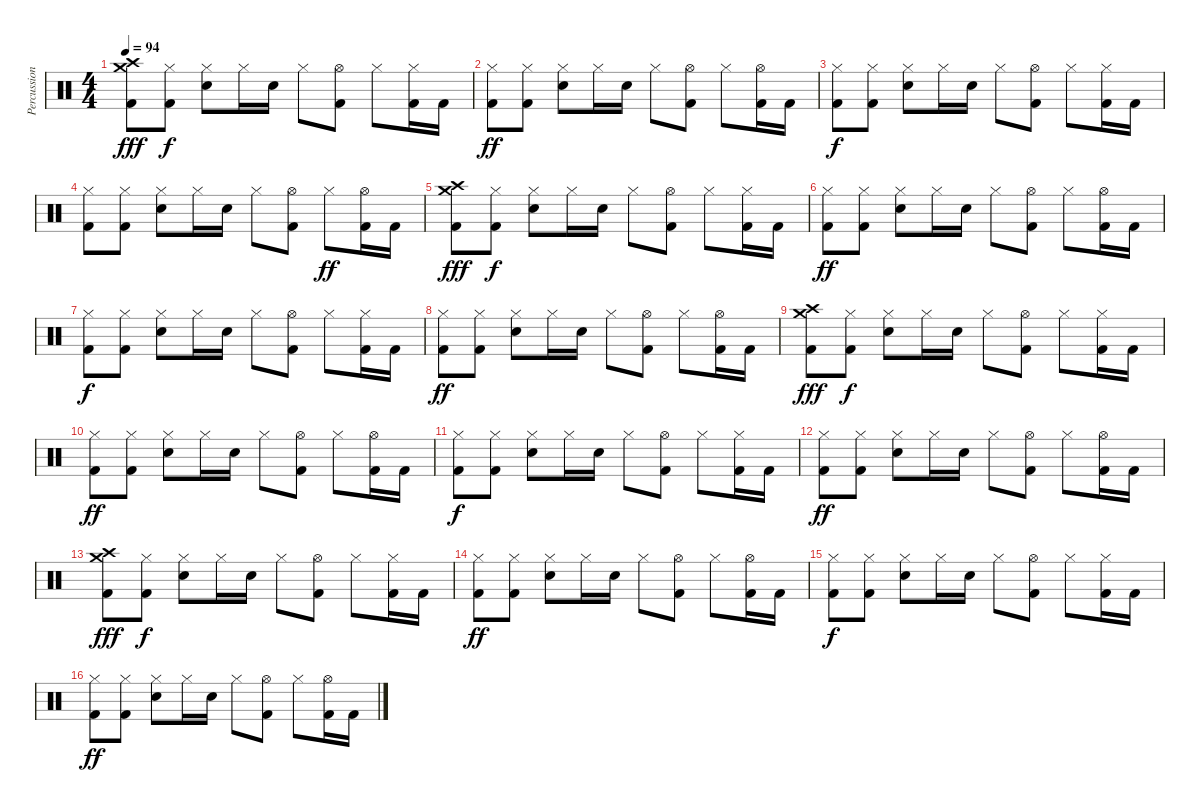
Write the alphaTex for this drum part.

\track ("Percussion" "Percussion") {instrument percussion}
\staff {score}
\articulation defaults
\ts (4 4)
\tempo 94
\clef neutral
\ks c
("Crash high (hit)" "Crash medium (hit)" "Kick (hit) 2").8{dy fff} ("Hi-Hat (closed)" "Kick (hit) 2").8{dy f} ("Hi-Hat (closed)" "Snare (hit) 2").8 "Hi-Hat (closed)".16 "Snare (hit) 2".16 "Hi-Hat (closed)".8 ("Hi-Hat (open)" "Kick (hit) 2").8 "Hi-Hat (closed)".8 ("Hi-Hat (closed)" "Kick (hit) 2").16 "Kick (hit) 2".16 |
("Hi-Hat (closed)" "Kick (hit) 2").8{dy ff} ("Hi-Hat (closed)" "Kick (hit) 2").8 ("Hi-Hat (closed)" "Snare (hit) 2").8 "Hi-Hat (closed)".16 "Snare (hit) 2".16 "Hi-Hat (closed)".8 ("Hi-Hat (open)" "Kick (hit) 2").8 "Hi-Hat (closed)".8 ("Hi-Hat (open)" "Kick (hit) 2").16 "Kick (hit) 2".16 |
("Hi-Hat (closed)" "Kick (hit) 2").8{dy f} ("Hi-Hat (closed)" "Kick (hit) 2").8 ("Hi-Hat (closed)" "Snare (hit) 2").8 "Hi-Hat (closed)".16 "Snare (hit) 2".16 "Hi-Hat (closed)".8 ("Hi-Hat (open)" "Kick (hit) 2").8 "Hi-Hat (closed)".8 ("Hi-Hat (closed)" "Kick (hit) 2").16 "Kick (hit) 2".16 |
("Hi-Hat (closed)" "Kick (hit) 2").8 ("Hi-Hat (closed)" "Kick (hit) 2").8 ("Hi-Hat (closed)" "Snare (hit) 2").8 "Hi-Hat (closed)".16 "Snare (hit) 2".16 "Hi-Hat (closed)".8 ("Hi-Hat (open)" "Kick (hit) 2").8 "Hi-Hat (closed)".8{dy ff} ("Hi-Hat (open)" "Kick (hit) 2").16 "Kick (hit) 2".16 |
("Crash high (hit)" "Crash medium (hit)" "Kick (hit) 2").8{dy fff} ("Hi-Hat (closed)" "Kick (hit) 2").8{dy f} ("Hi-Hat (closed)" "Snare (hit) 2").8 "Hi-Hat (closed)".16 "Snare (hit) 2".16 "Hi-Hat (closed)".8 ("Hi-Hat (open)" "Kick (hit) 2").8 "Hi-Hat (closed)".8 ("Hi-Hat (closed)" "Kick (hit) 2").16 "Kick (hit) 2".16 |
("Hi-Hat (closed)" "Kick (hit) 2").8{dy ff} ("Hi-Hat (closed)" "Kick (hit) 2").8 ("Hi-Hat (closed)" "Snare (hit) 2").8 "Hi-Hat (closed)".16 "Snare (hit) 2".16 "Hi-Hat (closed)".8 ("Hi-Hat (open)" "Kick (hit) 2").8 "Hi-Hat (closed)".8 ("Hi-Hat (open)" "Kick (hit) 2").16 "Kick (hit) 2".16 |
("Hi-Hat (closed)" "Kick (hit) 2").8{dy f} ("Hi-Hat (closed)" "Kick (hit) 2").8 ("Hi-Hat (closed)" "Snare (hit) 2").8 "Hi-Hat (closed)".16 "Snare (hit) 2".16 "Hi-Hat (closed)".8 ("Hi-Hat (open)" "Kick (hit) 2").8 "Hi-Hat (closed)".8 ("Hi-Hat (closed)" "Kick (hit) 2").16 "Kick (hit) 2".16 |
("Hi-Hat (closed)" "Kick (hit) 2").8{dy ff} ("Hi-Hat (closed)" "Kick (hit) 2").8 ("Hi-Hat (closed)" "Snare (hit) 2").8 "Hi-Hat (closed)".16 "Snare (hit) 2".16 "Hi-Hat (closed)".8 ("Hi-Hat (open)" "Kick (hit) 2").8 "Hi-Hat (closed)".8 ("Hi-Hat (open)" "Kick (hit) 2").16 "Kick (hit) 2".16 |
("Crash high (hit)" "Crash medium (hit)" "Kick (hit) 2").8{dy fff} ("Hi-Hat (closed)" "Kick (hit) 2").8{dy f} ("Hi-Hat (closed)" "Snare (hit) 2").8 "Hi-Hat (closed)".16 "Snare (hit) 2".16 "Hi-Hat (closed)".8 ("Hi-Hat (open)" "Kick (hit) 2").8 "Hi-Hat (closed)".8 ("Hi-Hat (closed)" "Kick (hit) 2").16 "Kick (hit) 2".16 |
("Hi-Hat (closed)" "Kick (hit) 2").8{dy ff} ("Hi-Hat (closed)" "Kick (hit) 2").8 ("Hi-Hat (closed)" "Snare (hit) 2").8 "Hi-Hat (closed)".16 "Snare (hit) 2".16 "Hi-Hat (closed)".8 ("Hi-Hat (open)" "Kick (hit) 2").8 "Hi-Hat (closed)".8 ("Hi-Hat (open)" "Kick (hit) 2").16 "Kick (hit) 2".16 |
("Hi-Hat (closed)" "Kick (hit) 2").8{dy f} ("Hi-Hat (closed)" "Kick (hit) 2").8 ("Hi-Hat (closed)" "Snare (hit) 2").8 "Hi-Hat (closed)".16 "Snare (hit) 2".16 "Hi-Hat (closed)".8 ("Hi-Hat (open)" "Kick (hit) 2").8 "Hi-Hat (closed)".8 ("Hi-Hat (closed)" "Kick (hit) 2").16 "Kick (hit) 2".16 |
("Hi-Hat (closed)" "Kick (hit) 2").8{dy ff} ("Hi-Hat (closed)" "Kick (hit) 2").8 ("Hi-Hat (closed)" "Snare (hit) 2").8 "Hi-Hat (closed)".16 "Snare (hit) 2".16 "Hi-Hat (closed)".8 ("Hi-Hat (open)" "Kick (hit) 2").8 "Hi-Hat (closed)".8 ("Hi-Hat (open)" "Kick (hit) 2").16 "Kick (hit) 2".16 |
("Crash high (hit)" "Crash medium (hit)" "Kick (hit) 2").8{dy fff} ("Hi-Hat (closed)" "Kick (hit) 2").8{dy f} ("Hi-Hat (closed)" "Snare (hit) 2").8 "Hi-Hat (closed)".16 "Snare (hit) 2".16 "Hi-Hat (closed)".8 ("Hi-Hat (open)" "Kick (hit) 2").8 "Hi-Hat (closed)".8 ("Hi-Hat (closed)" "Kick (hit) 2").16 "Kick (hit) 2".16 |
("Hi-Hat (closed)" "Kick (hit) 2").8{dy ff} ("Hi-Hat (closed)" "Kick (hit) 2").8 ("Hi-Hat (closed)" "Snare (hit) 2").8 "Hi-Hat (closed)".16 "Snare (hit) 2".16 "Hi-Hat (closed)".8 ("Hi-Hat (open)" "Kick (hit) 2").8 "Hi-Hat (closed)".8 ("Hi-Hat (open)" "Kick (hit) 2").16 "Kick (hit) 2".16 |
("Hi-Hat (closed)" "Kick (hit) 2").8{dy f} ("Hi-Hat (closed)" "Kick (hit) 2").8 ("Hi-Hat (closed)" "Snare (hit) 2").8 "Hi-Hat (closed)".16 "Snare (hit) 2".16 "Hi-Hat (closed)".8 ("Hi-Hat (open)" "Kick (hit) 2").8 "Hi-Hat (closed)".8 ("Hi-Hat (closed)" "Kick (hit) 2").16 "Kick (hit) 2".16 |
("Hi-Hat (closed)" "Kick (hit) 2").8{dy ff} ("Hi-Hat (closed)" "Kick (hit) 2").8 ("Hi-Hat (closed)" "Snare (hit) 2").8 "Hi-Hat (closed)".16 "Snare (hit) 2".16 "Hi-Hat (closed)".8 ("Hi-Hat (open)" "Kick (hit) 2").8 "Hi-Hat (closed)".8 ("Hi-Hat (open)" "Kick (hit) 2").16 "Kick (hit) 2".16
